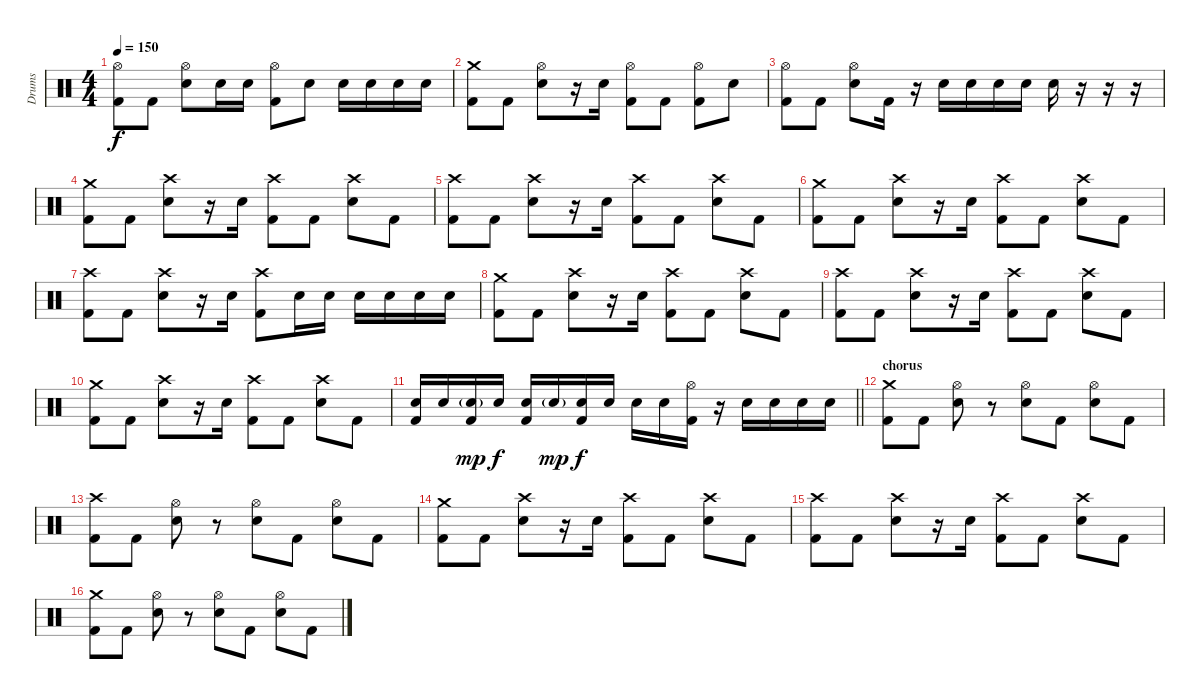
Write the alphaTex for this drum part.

\track ("Drums" "Drums") {instrument percussion}
\staff {score}
\articulation defaults
\ts (4 4)
\tempo 150
\clef neutral
\ks c
("Kick (hit) 2" "Hi-Hat (open)").8{dy f} "Kick (hit) 2".8 ("Electric Snare (hit)" "Hi-Hat (open)").8 "Electric Snare (hit)".16 "Electric Snare (hit)".16 ("Kick (hit) 2" "Hi-Hat (open)").8 "Electric Snare (hit)".8 "Electric Snare (hit)".16 "Electric Snare (hit)".16 "Electric Snare (hit)".16 "Electric Snare (hit)".16 |
("Kick (hit) 2" "Crash medium (hit)").8 "Kick (hit) 2".8 ("Electric Snare (hit)" "Hi-Hat (open)").8 r.16 "Electric Snare (hit)".16 ("Kick (hit) 2" "Hi-Hat (open)").8 "Kick (hit) 2".8 ("Kick (hit) 2" "Hi-Hat (open)").8 "Electric Snare (hit)".8 |
("Kick (hit) 2" "Hi-Hat (open)").8 "Kick (hit) 2".8 ("Electric Snare (hit)" "Hi-Hat (open)").8 "Kick (hit) 2".16 r.16 "Electric Snare (hit)".16 "Electric Snare (hit)".16 "Electric Snare (hit)".16 "Electric Snare (hit)".16 "Electric Snare (hit)".16 r.16 r.16 r.16 |
("Kick (hit) 2" "Crash medium (hit)").8 "Kick (hit) 2".8 ("Electric Snare (hit)" "Crash high (hit)").8 r.16 "Electric Snare (hit)".16 ("Kick (hit) 2" "Crash high (hit)").8 "Kick (hit) 2".8 ("Electric Snare (hit)" "Crash high (hit)").8 "Kick (hit) 2".8 |
("Kick (hit) 2" "Crash high (hit)").8 "Kick (hit) 2".8 ("Electric Snare (hit)" "Crash high (hit)").8 r.16 "Electric Snare (hit)".16 ("Kick (hit) 2" "Crash high (hit)").8 "Kick (hit) 2".8 ("Electric Snare (hit)" "Crash high (hit)").8 "Kick (hit) 2".8 |
("Kick (hit) 2" "Crash medium (hit)").8 "Kick (hit) 2".8 ("Electric Snare (hit)" "Crash high (hit)").8 r.16 "Electric Snare (hit)".16 ("Kick (hit) 2" "Crash high (hit)").8 "Kick (hit) 2".8 ("Electric Snare (hit)" "Crash high (hit)").8 "Kick (hit) 2".8 |
("Kick (hit) 2" "Crash high (hit)").8 "Kick (hit) 2".8 ("Electric Snare (hit)" "Crash high (hit)").8 r.16 "Electric Snare (hit)".16 ("Kick (hit) 2" "Crash high (hit)").8 "Electric Snare (hit)".16 "Electric Snare (hit)".16 "Electric Snare (hit)".16 "Electric Snare (hit)".16 "Electric Snare (hit)".16 "Electric Snare (hit)".16 |
("Kick (hit) 2" "Crash medium (hit)").8 "Kick (hit) 2".8 ("Electric Snare (hit)" "Crash high (hit)").8 r.16 "Electric Snare (hit)".16 ("Kick (hit) 2" "Crash high (hit)").8 "Kick (hit) 2".8 ("Electric Snare (hit)" "Crash high (hit)").8 "Kick (hit) 2".8 |
("Kick (hit) 2" "Crash high (hit)").8 "Kick (hit) 2".8 ("Electric Snare (hit)" "Crash high (hit)").8 r.16 "Electric Snare (hit)".16 ("Kick (hit) 2" "Crash high (hit)").8 "Kick (hit) 2".8 ("Electric Snare (hit)" "Crash high (hit)").8 "Kick (hit) 2".8 |
("Kick (hit) 2" "Crash medium (hit)").8 "Kick (hit) 2".8 ("Electric Snare (hit)" "Crash high (hit)").8 r.16 "Electric Snare (hit)".16 ("Kick (hit) 2" "Crash high (hit)").8 "Kick (hit) 2".8 ("Electric Snare (hit)" "Crash high (hit)").8 "Kick (hit) 2".8 |
\barLineRight lightlight
("Electric Snare (hit)" "Kick (hit) 2").16 "Electric Snare (hit)".16 ("Electric Snare (hit)"{g} "Kick (hit) 2").16{dy mp} "Electric Snare (hit)".16{dy f} ("Electric Snare (hit)" "Kick (hit) 2").16 "Electric Snare (hit)"{g}.16{dy mp} ("Electric Snare (hit)" "Kick (hit) 2").16{dy f} "Electric Snare (hit)".16 "Electric Snare (hit)".16 "Electric Snare (hit)".16 ("Kick (hit) 2" "Hi-Hat (open)").16 r.16 "Electric Snare (hit)".16 "Electric Snare (hit)".16 "Electric Snare (hit)".16 "Electric Snare (hit)".16 |
\section ("" "chorus")
("Kick (hit) 2" "Crash medium (hit)").8 "Kick (hit) 2".8 ("Electric Snare (hit)" "Hi-Hat (open)").8 r.8 ("Electric Snare (hit)" "Hi-Hat (open)").8 "Kick (hit) 2".8 ("Electric Snare (hit)" "Hi-Hat (open)").8 "Kick (hit) 2".8 |
("Kick (hit) 2" "Crash high (hit)").8 "Kick (hit) 2".8 ("Electric Snare (hit)" "Hi-Hat (open)").8 r.8 ("Electric Snare (hit)" "Hi-Hat (open)").8 "Kick (hit) 2".8 ("Electric Snare (hit)" "Hi-Hat (open)").8 "Kick (hit) 2".8 |
("Kick (hit) 2" "Crash medium (hit)").8 "Kick (hit) 2".8 ("Electric Snare (hit)" "Crash high (hit)").8 r.16 "Electric Snare (hit)".16 ("Kick (hit) 2" "Crash high (hit)").8 "Kick (hit) 2".8 ("Electric Snare (hit)" "Crash high (hit)").8 "Kick (hit) 2".8 |
("Kick (hit) 2" "Crash high (hit)").8 "Kick (hit) 2".8 ("Electric Snare (hit)" "Crash high (hit)").8 r.16 "Electric Snare (hit)".16 ("Kick (hit) 2" "Crash high (hit)").8 "Kick (hit) 2".8 ("Electric Snare (hit)" "Crash high (hit)").8 "Kick (hit) 2".8 |
("Kick (hit) 2" "Crash medium (hit)").8 "Kick (hit) 2".8 ("Electric Snare (hit)" "Hi-Hat (open)").8 r.8 ("Electric Snare (hit)" "Hi-Hat (open)").8 "Kick (hit) 2".8 ("Electric Snare (hit)" "Hi-Hat (open)").8 "Kick (hit) 2".8
